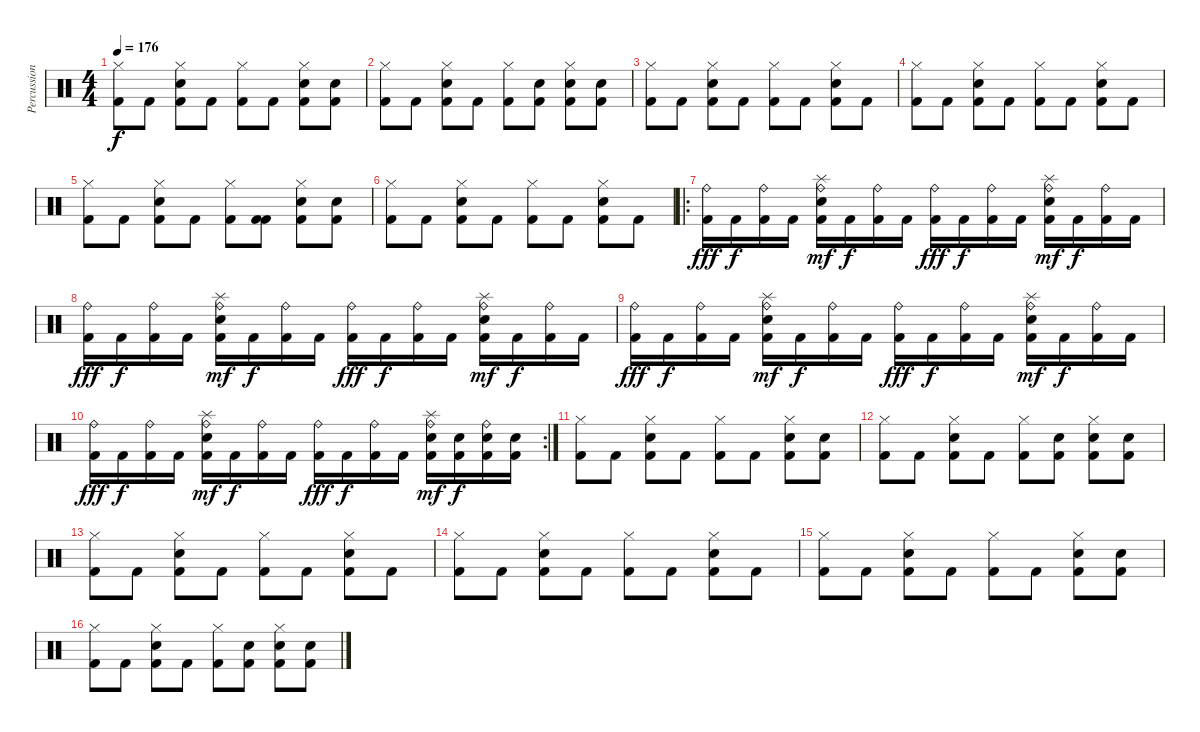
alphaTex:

\track ("Percussion" "Percussion") {instrument percussion}
\staff {score}
\articulation defaults
\ts (4 4)
\tempo 176
\clef neutral
\ks c
("Hi-Hat (closed)" "Kick (hit) 2").8{dy f} "Kick (hit) 2".8 ("Hi-Hat (closed)" "Snare (hit) 2" "Kick (hit) 2").8 "Kick (hit) 2".8 ("Hi-Hat (closed)" "Kick (hit) 2").8 "Kick (hit) 2".8 ("Hi-Hat (closed)" "Snare (hit) 2" "Kick (hit) 2").8 ("Snare (hit) 2" "Kick (hit) 2").8 |
("Hi-Hat (closed)" "Kick (hit) 2").8 "Kick (hit) 2".8 ("Hi-Hat (closed)" "Snare (hit) 2" "Kick (hit) 2").8 "Kick (hit) 2".8 ("Hi-Hat (closed)" "Kick (hit) 2").8 ("Snare (hit) 2" "Kick (hit) 2").8 ("Hi-Hat (closed)" "Snare (hit) 2" "Kick (hit) 2").8 ("Snare (hit) 2" "Kick (hit) 2").8 |
("Hi-Hat (closed)" "Kick (hit) 2").8 "Kick (hit) 2".8 ("Hi-Hat (closed)" "Snare (hit) 2" "Kick (hit) 2").8 "Kick (hit) 2".8 ("Hi-Hat (closed)" "Kick (hit) 2").8 "Kick (hit) 2".8 ("Hi-Hat (closed)" "Snare (hit) 2" "Kick (hit) 2").8 "Kick (hit) 2".8 |
("Hi-Hat (closed)" "Kick (hit) 2").8 "Kick (hit) 2".8 ("Hi-Hat (closed)" "Snare (hit) 2" "Kick (hit) 2").8 "Kick (hit) 2".8 ("Hi-Hat (closed)" "Kick (hit) 2").8 "Kick (hit) 2".8 ("Hi-Hat (closed)" "Snare (hit) 2" "Kick (hit) 2").8 "Kick (hit) 2".8 |
("Hi-Hat (closed)" "Kick (hit) 2").8 "Kick (hit) 2".8 ("Hi-Hat (closed)" "Snare (hit) 2" "Kick (hit) 2").8 "Kick (hit) 2".8 ("Hi-Hat (closed)" "Kick (hit) 2").8 ("Kick (hit) 2" "Kick (hit) 2").8 ("Hi-Hat (closed)" "Snare (hit) 2" "Kick (hit) 2").8 ("Snare (hit) 2" "Kick (hit) 2").8 |
("Hi-Hat (closed)" "Kick (hit) 2").8 "Kick (hit) 2".8 ("Hi-Hat (closed)" "Snare (hit) 2" "Kick (hit) 2").8 "Kick (hit) 2".8 ("Hi-Hat (closed)" "Kick (hit) 2").8 "Kick (hit) 2".8 ("Hi-Hat (closed)" "Snare (hit) 2" "Kick (hit) 2").8 "Kick (hit) 2".8 |
\ro
("Ride (bell)" "Kick (hit) 2").16{dy fff} "Kick (hit) 2".16{dy f} ("Ride (bell)" "Kick (hit) 2").16 "Kick (hit) 2".16 ("Splash (hit)" "Ride (bell)" "Snare (hit) 2" "Kick (hit) 2").16{dy mf} "Kick (hit) 2".16{dy f} ("Ride (bell)" "Kick (hit) 2").16 "Kick (hit) 2".16 ("Ride (bell)" "Kick (hit) 2").16{dy fff} "Kick (hit) 2".16{dy f} ("Ride (bell)" "Kick (hit) 2").16 "Kick (hit) 2".16 ("Splash (hit)" "Ride (bell)" "Snare (hit) 2" "Kick (hit) 2").16{dy mf} "Kick (hit) 2".16{dy f} ("Ride (bell)" "Kick (hit) 2").16 "Kick (hit) 2".16 |
("Ride (bell)" "Kick (hit) 2").16{dy fff} "Kick (hit) 2".16{dy f} ("Ride (bell)" "Kick (hit) 2").16 "Kick (hit) 2".16 ("Splash (hit)" "Ride (bell)" "Snare (hit) 2" "Kick (hit) 2").16{dy mf} "Kick (hit) 2".16{dy f} ("Ride (bell)" "Kick (hit) 2").16 "Kick (hit) 2".16 ("Ride (bell)" "Kick (hit) 2").16{dy fff} "Kick (hit) 2".16{dy f} ("Ride (bell)" "Kick (hit) 2").16 "Kick (hit) 2".16 ("Splash (hit)" "Ride (bell)" "Snare (hit) 2" "Kick (hit) 2").16{dy mf} "Kick (hit) 2".16{dy f} ("Ride (bell)" "Kick (hit) 2").16 "Kick (hit) 2".16 |
("Ride (bell)" "Kick (hit) 2").16{dy fff} "Kick (hit) 2".16{dy f} ("Ride (bell)" "Kick (hit) 2").16 "Kick (hit) 2".16 ("Splash (hit)" "Ride (bell)" "Snare (hit) 2" "Kick (hit) 2").16{dy mf} "Kick (hit) 2".16{dy f} ("Ride (bell)" "Kick (hit) 2").16 "Kick (hit) 2".16 ("Ride (bell)" "Kick (hit) 2").16{dy fff} "Kick (hit) 2".16{dy f} ("Ride (bell)" "Kick (hit) 2").16 "Kick (hit) 2".16 ("Splash (hit)" "Ride (bell)" "Snare (hit) 2" "Kick (hit) 2").16{dy mf} "Kick (hit) 2".16{dy f} ("Ride (bell)" "Kick (hit) 2").16 "Kick (hit) 2".16 |
\rc 2
("Ride (bell)" "Kick (hit) 2").16{dy fff} "Kick (hit) 2".16{dy f} ("Ride (bell)" "Kick (hit) 2").16 "Kick (hit) 2".16 ("Splash (hit)" "Ride (bell)" "Snare (hit) 2" "Kick (hit) 2").16{dy mf} "Kick (hit) 2".16{dy f} ("Ride (bell)" "Kick (hit) 2").16 "Kick (hit) 2".16 ("Ride (bell)" "Kick (hit) 2").16{dy fff} "Kick (hit) 2".16{dy f} ("Ride (bell)" "Kick (hit) 2").16 "Kick (hit) 2".16 ("Splash (hit)" "Ride (bell)" "Snare (hit) 2" "Kick (hit) 2").16{dy mf} ("Snare (hit) 2" "Kick (hit) 2").16{dy f} ("Ride (bell)" "Snare (hit) 2" "Kick (hit) 2").16 ("Snare (hit) 2" "Kick (hit) 2").16 |
("Hi-Hat (closed)" "Kick (hit) 2").8 "Kick (hit) 2".8 ("Hi-Hat (closed)" "Snare (hit) 2" "Kick (hit) 2").8 "Kick (hit) 2".8 ("Hi-Hat (closed)" "Kick (hit) 2").8 "Kick (hit) 2".8 ("Hi-Hat (closed)" "Snare (hit) 2" "Kick (hit) 2").8 ("Snare (hit) 2" "Kick (hit) 2").8 |
("Hi-Hat (closed)" "Kick (hit) 2").8 "Kick (hit) 2".8 ("Hi-Hat (closed)" "Snare (hit) 2" "Kick (hit) 2").8 "Kick (hit) 2".8 ("Hi-Hat (closed)" "Kick (hit) 2").8 ("Snare (hit) 2" "Kick (hit) 2").8 ("Hi-Hat (closed)" "Snare (hit) 2" "Kick (hit) 2").8 ("Snare (hit) 2" "Kick (hit) 2").8 |
("Hi-Hat (closed)" "Kick (hit) 2").8 "Kick (hit) 2".8 ("Hi-Hat (closed)" "Snare (hit) 2" "Kick (hit) 2").8 "Kick (hit) 2".8 ("Hi-Hat (closed)" "Kick (hit) 2").8 "Kick (hit) 2".8 ("Hi-Hat (closed)" "Snare (hit) 2" "Kick (hit) 2").8 "Kick (hit) 2".8 |
("Hi-Hat (closed)" "Kick (hit) 2").8 "Kick (hit) 2".8 ("Hi-Hat (closed)" "Snare (hit) 2" "Kick (hit) 2").8 "Kick (hit) 2".8 ("Hi-Hat (closed)" "Kick (hit) 2").8 "Kick (hit) 2".8 ("Hi-Hat (closed)" "Snare (hit) 2" "Kick (hit) 2").8 "Kick (hit) 2".8 |
("Hi-Hat (closed)" "Kick (hit) 2").8 "Kick (hit) 2".8 ("Hi-Hat (closed)" "Snare (hit) 2" "Kick (hit) 2").8 "Kick (hit) 2".8 ("Hi-Hat (closed)" "Kick (hit) 2").8 "Kick (hit) 2".8 ("Hi-Hat (closed)" "Snare (hit) 2" "Kick (hit) 2").8 ("Snare (hit) 2" "Kick (hit) 2").8 |
("Hi-Hat (closed)" "Kick (hit) 2").8 "Kick (hit) 2".8 ("Hi-Hat (closed)" "Snare (hit) 2" "Kick (hit) 2").8 "Kick (hit) 2".8 ("Hi-Hat (closed)" "Kick (hit) 2").8 ("Snare (hit) 2" "Kick (hit) 2").8 ("Hi-Hat (closed)" "Snare (hit) 2" "Kick (hit) 2").8 ("Snare (hit) 2" "Kick (hit) 2").8
